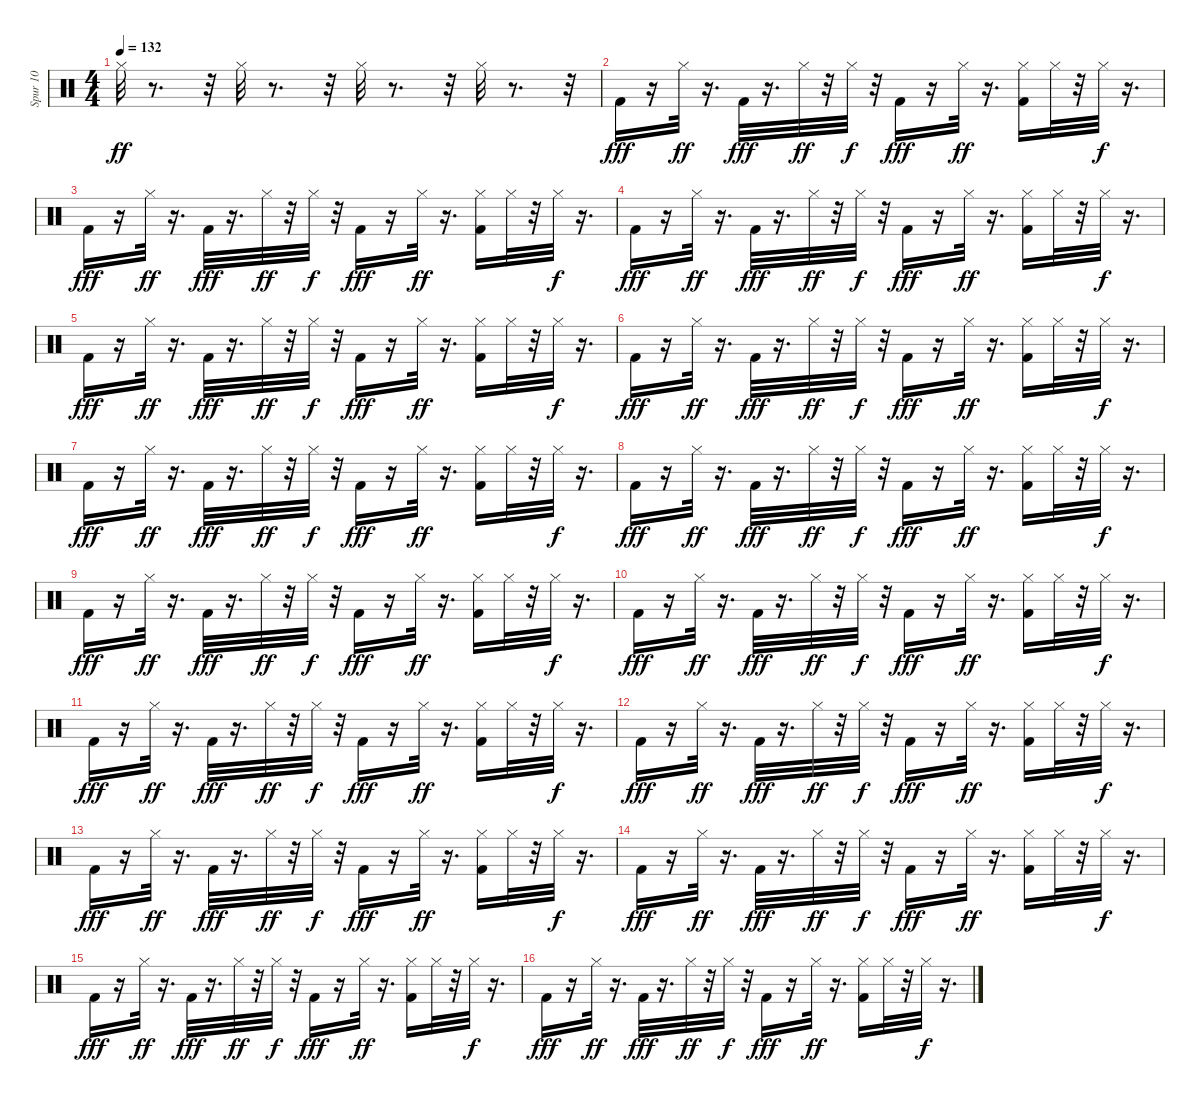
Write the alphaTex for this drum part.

\track ("Spur 10" "Spur 10") {instrument percussion}
\staff {score}
\articulation defaults
\ts (4 4)
\tempo 132
\clef neutral
\ks c "Hi-Hat (closed)".32{dy ff}
r.8{d} r.32 "Hi-Hat (closed)".32 r.8{d} r.32 "Hi-Hat (closed)".32 r.8{d} r.32 "Hi-Hat (closed)".32 r.8{d} r.32 |
"Kick (hit) 2".16{dy fff} r.16 "Hi-Hat (closed)".32{dy ff} r.16{d} "Kick (hit) 2".32{dy fff} r.16{d} "Hi-Hat (closed)".32{dy ff} r.32 "Hi-Hat (closed)".32{dy f} r.32 "Kick (hit) 2".16{dy fff} r.16 "Hi-Hat (closed)".32{dy ff} r.16{d} ("Kick (hit) 2" "Hi-Hat (closed)").16 "Hi-Hat (closed)".32 r.32 "Hi-Hat (closed)".32{dy f} r.16{d} |
"Kick (hit) 2".16{dy fff} r.16 "Hi-Hat (closed)".32{dy ff} r.16{d} "Kick (hit) 2".32{dy fff} r.16{d} "Hi-Hat (closed)".32{dy ff} r.32 "Hi-Hat (closed)".32{dy f} r.32 "Kick (hit) 2".16{dy fff} r.16 "Hi-Hat (closed)".32{dy ff} r.16{d} ("Kick (hit) 2" "Hi-Hat (closed)").16 "Hi-Hat (closed)".32 r.32 "Hi-Hat (closed)".32{dy f} r.16{d} |
"Kick (hit) 2".16{dy fff} r.16 "Hi-Hat (closed)".32{dy ff} r.16{d} "Kick (hit) 2".32{dy fff} r.16{d} "Hi-Hat (closed)".32{dy ff} r.32 "Hi-Hat (closed)".32{dy f} r.32 "Kick (hit) 2".16{dy fff} r.16 "Hi-Hat (closed)".32{dy ff} r.16{d} ("Kick (hit) 2" "Hi-Hat (closed)").16 "Hi-Hat (closed)".32 r.32 "Hi-Hat (closed)".32{dy f} r.16{d} |
"Kick (hit) 2".16{dy fff} r.16 "Hi-Hat (closed)".32{dy ff} r.16{d} "Kick (hit) 2".32{dy fff} r.16{d} "Hi-Hat (closed)".32{dy ff} r.32 "Hi-Hat (closed)".32{dy f} r.32 "Kick (hit) 2".16{dy fff} r.16 "Hi-Hat (closed)".32{dy ff} r.16{d} ("Kick (hit) 2" "Hi-Hat (closed)").16 "Hi-Hat (closed)".32 r.32 "Hi-Hat (closed)".32{dy f} r.16{d} |
"Kick (hit) 2".16{dy fff} r.16 "Hi-Hat (closed)".32{dy ff} r.16{d} "Kick (hit) 2".32{dy fff} r.16{d} "Hi-Hat (closed)".32{dy ff} r.32 "Hi-Hat (closed)".32{dy f} r.32 "Kick (hit) 2".16{dy fff} r.16 "Hi-Hat (closed)".32{dy ff} r.16{d} ("Kick (hit) 2" "Hi-Hat (closed)").16 "Hi-Hat (closed)".32 r.32 "Hi-Hat (closed)".32{dy f} r.16{d} |
"Kick (hit) 2".16{dy fff} r.16 "Hi-Hat (closed)".32{dy ff} r.16{d} "Kick (hit) 2".32{dy fff} r.16{d} "Hi-Hat (closed)".32{dy ff} r.32 "Hi-Hat (closed)".32{dy f} r.32 "Kick (hit) 2".16{dy fff} r.16 "Hi-Hat (closed)".32{dy ff} r.16{d} ("Kick (hit) 2" "Hi-Hat (closed)").16 "Hi-Hat (closed)".32 r.32 "Hi-Hat (closed)".32{dy f} r.16{d} |
"Kick (hit) 2".16{dy fff} r.16 "Hi-Hat (closed)".32{dy ff} r.16{d} "Kick (hit) 2".32{dy fff} r.16{d} "Hi-Hat (closed)".32{dy ff} r.32 "Hi-Hat (closed)".32{dy f} r.32 "Kick (hit) 2".16{dy fff} r.16 "Hi-Hat (closed)".32{dy ff} r.16{d} ("Kick (hit) 2" "Hi-Hat (closed)").16 "Hi-Hat (closed)".32 r.32 "Hi-Hat (closed)".32{dy f} r.16{d} |
"Kick (hit) 2".16{dy fff} r.16 "Hi-Hat (closed)".32{dy ff} r.16{d} "Kick (hit) 2".32{dy fff} r.16{d} "Hi-Hat (closed)".32{dy ff} r.32 "Hi-Hat (closed)".32{dy f} r.32 "Kick (hit) 2".16{dy fff} r.16 "Hi-Hat (closed)".32{dy ff} r.16{d} ("Kick (hit) 2" "Hi-Hat (closed)").16 "Hi-Hat (closed)".32 r.32 "Hi-Hat (closed)".32{dy f} r.16{d} |
"Kick (hit) 2".16{dy fff} r.16 "Hi-Hat (closed)".32{dy ff} r.16{d} "Kick (hit) 2".32{dy fff} r.16{d} "Hi-Hat (closed)".32{dy ff} r.32 "Hi-Hat (closed)".32{dy f} r.32 "Kick (hit) 2".16{dy fff} r.16 "Hi-Hat (closed)".32{dy ff} r.16{d} ("Kick (hit) 2" "Hi-Hat (closed)").16 "Hi-Hat (closed)".32 r.32 "Hi-Hat (closed)".32{dy f} r.16{d} |
"Kick (hit) 2".16{dy fff} r.16 "Hi-Hat (closed)".32{dy ff} r.16{d} "Kick (hit) 2".32{dy fff} r.16{d} "Hi-Hat (closed)".32{dy ff} r.32 "Hi-Hat (closed)".32{dy f} r.32 "Kick (hit) 2".16{dy fff} r.16 "Hi-Hat (closed)".32{dy ff} r.16{d} ("Kick (hit) 2" "Hi-Hat (closed)").16 "Hi-Hat (closed)".32 r.32 "Hi-Hat (closed)".32{dy f} r.16{d} |
"Kick (hit) 2".16{dy fff} r.16 "Hi-Hat (closed)".32{dy ff} r.16{d} "Kick (hit) 2".32{dy fff} r.16{d} "Hi-Hat (closed)".32{dy ff} r.32 "Hi-Hat (closed)".32{dy f} r.32 "Kick (hit) 2".16{dy fff} r.16 "Hi-Hat (closed)".32{dy ff} r.16{d} ("Kick (hit) 2" "Hi-Hat (closed)").16 "Hi-Hat (closed)".32 r.32 "Hi-Hat (closed)".32{dy f} r.16{d} |
"Kick (hit) 2".16{dy fff} r.16 "Hi-Hat (closed)".32{dy ff} r.16{d} "Kick (hit) 2".32{dy fff} r.16{d} "Hi-Hat (closed)".32{dy ff} r.32 "Hi-Hat (closed)".32{dy f} r.32 "Kick (hit) 2".16{dy fff} r.16 "Hi-Hat (closed)".32{dy ff} r.16{d} ("Kick (hit) 2" "Hi-Hat (closed)").16 "Hi-Hat (closed)".32 r.32 "Hi-Hat (closed)".32{dy f} r.16{d} |
"Kick (hit) 2".16{dy fff} r.16 "Hi-Hat (closed)".32{dy ff} r.16{d} "Kick (hit) 2".32{dy fff} r.16{d} "Hi-Hat (closed)".32{dy ff} r.32 "Hi-Hat (closed)".32{dy f} r.32 "Kick (hit) 2".16{dy fff} r.16 "Hi-Hat (closed)".32{dy ff} r.16{d} ("Kick (hit) 2" "Hi-Hat (closed)").16 "Hi-Hat (closed)".32 r.32 "Hi-Hat (closed)".32{dy f} r.16{d} |
"Kick (hit) 2".16{dy fff} r.16 "Hi-Hat (closed)".32{dy ff} r.16{d} "Kick (hit) 2".32{dy fff} r.16{d} "Hi-Hat (closed)".32{dy ff} r.32 "Hi-Hat (closed)".32{dy f} r.32 "Kick (hit) 2".16{dy fff} r.16 "Hi-Hat (closed)".32{dy ff} r.16{d} ("Kick (hit) 2" "Hi-Hat (closed)").16 "Hi-Hat (closed)".32 r.32 "Hi-Hat (closed)".32{dy f} r.16{d} |
"Kick (hit) 2".16{dy fff} r.16 "Hi-Hat (closed)".32{dy ff} r.16{d} "Kick (hit) 2".32{dy fff} r.16{d} "Hi-Hat (closed)".32{dy ff} r.32 "Hi-Hat (closed)".32{dy f} r.32 "Kick (hit) 2".16{dy fff} r.16 "Hi-Hat (closed)".32{dy ff} r.16{d} ("Kick (hit) 2" "Hi-Hat (closed)").16 "Hi-Hat (closed)".32 r.32 "Hi-Hat (closed)".32{dy f} r.16{d}
